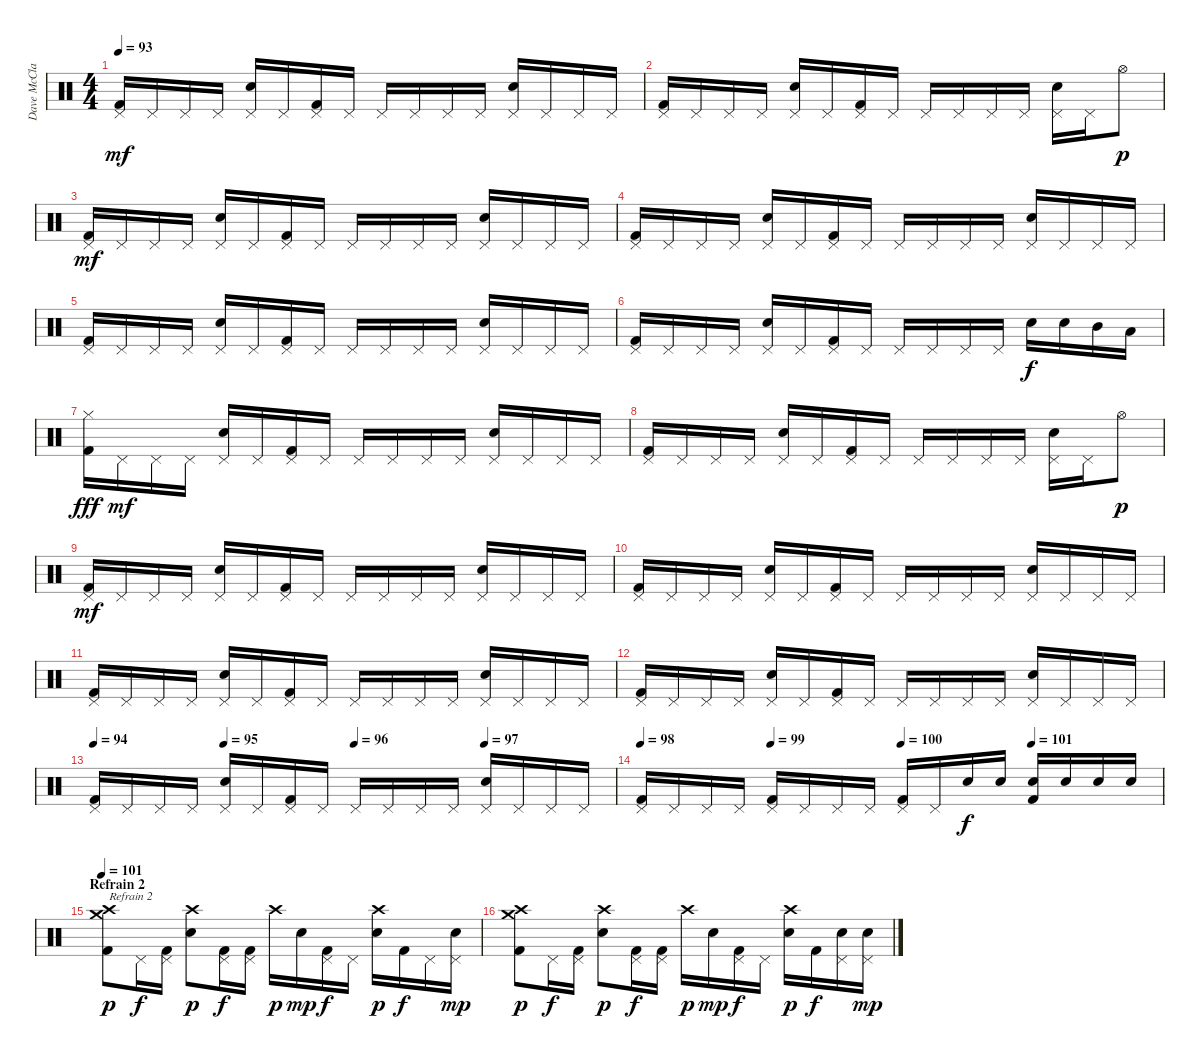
\track ("Dave McClain" "Dave McCla") {instrument percussion}
\staff {score}
\articulation defaults
\ts (4 4)
\tempo 93
\clef neutral
\ks c
("Pedal Hi-Hat (hit)" "Kick (hit) 2").16{dy mf} "Pedal Hi-Hat (hit)".16 "Pedal Hi-Hat (hit)".16 "Pedal Hi-Hat (hit)".16 ("Electric Snare (hit)" "Pedal Hi-Hat (hit)").16 "Pedal Hi-Hat (hit)".16 ("Pedal Hi-Hat (hit)" "Kick (hit) 2").16 "Pedal Hi-Hat (hit)".16 "Pedal Hi-Hat (hit)".16 "Pedal Hi-Hat (hit)".16 "Pedal Hi-Hat (hit)".16 "Pedal Hi-Hat (hit)".16 ("Electric Snare (hit)" "Pedal Hi-Hat (hit)").16 "Pedal Hi-Hat (hit)".16 "Pedal Hi-Hat (hit)".16 "Pedal Hi-Hat (hit)".16 |
("Pedal Hi-Hat (hit)" "Kick (hit) 2").16 "Pedal Hi-Hat (hit)".16 "Pedal Hi-Hat (hit)".16 "Pedal Hi-Hat (hit)".16 ("Electric Snare (hit)" "Pedal Hi-Hat (hit)").16 "Pedal Hi-Hat (hit)".16 ("Pedal Hi-Hat (hit)" "Kick (hit) 2").16 "Pedal Hi-Hat (hit)".16 "Pedal Hi-Hat (hit)".16 "Pedal Hi-Hat (hit)".16 "Pedal Hi-Hat (hit)".16 "Pedal Hi-Hat (hit)".16 ("Electric Snare (hit)" "Pedal Hi-Hat (hit)").16 "Pedal Hi-Hat (hit)".16 "Hi-Hat (open)".8{dy p} |
("Pedal Hi-Hat (hit)" "Kick (hit) 2").16{dy mf} "Pedal Hi-Hat (hit)".16 "Pedal Hi-Hat (hit)".16 "Pedal Hi-Hat (hit)".16 ("Electric Snare (hit)" "Pedal Hi-Hat (hit)").16 "Pedal Hi-Hat (hit)".16 ("Pedal Hi-Hat (hit)" "Kick (hit) 2").16 "Pedal Hi-Hat (hit)".16 "Pedal Hi-Hat (hit)".16 "Pedal Hi-Hat (hit)".16 "Pedal Hi-Hat (hit)".16 "Pedal Hi-Hat (hit)".16 ("Electric Snare (hit)" "Pedal Hi-Hat (hit)").16 "Pedal Hi-Hat (hit)".16 "Pedal Hi-Hat (hit)".16 "Pedal Hi-Hat (hit)".16 |
("Pedal Hi-Hat (hit)" "Kick (hit) 2").16 "Pedal Hi-Hat (hit)".16 "Pedal Hi-Hat (hit)".16 "Pedal Hi-Hat (hit)".16 ("Electric Snare (hit)" "Pedal Hi-Hat (hit)").16 "Pedal Hi-Hat (hit)".16 ("Pedal Hi-Hat (hit)" "Kick (hit) 2").16 "Pedal Hi-Hat (hit)".16 "Pedal Hi-Hat (hit)".16 "Pedal Hi-Hat (hit)".16 "Pedal Hi-Hat (hit)".16 "Pedal Hi-Hat (hit)".16 ("Electric Snare (hit)" "Pedal Hi-Hat (hit)").16 "Pedal Hi-Hat (hit)".16 "Pedal Hi-Hat (hit)".16 "Pedal Hi-Hat (hit)".16 |
("Pedal Hi-Hat (hit)" "Kick (hit) 2").16 "Pedal Hi-Hat (hit)".16 "Pedal Hi-Hat (hit)".16 "Pedal Hi-Hat (hit)".16 ("Electric Snare (hit)" "Pedal Hi-Hat (hit)").16 "Pedal Hi-Hat (hit)".16 ("Pedal Hi-Hat (hit)" "Kick (hit) 2").16 "Pedal Hi-Hat (hit)".16 "Pedal Hi-Hat (hit)".16 "Pedal Hi-Hat (hit)".16 "Pedal Hi-Hat (hit)".16 "Pedal Hi-Hat (hit)".16 ("Electric Snare (hit)" "Pedal Hi-Hat (hit)").16 "Pedal Hi-Hat (hit)".16 "Pedal Hi-Hat (hit)".16 "Pedal Hi-Hat (hit)".16 |
("Pedal Hi-Hat (hit)" "Kick (hit) 2").16 "Pedal Hi-Hat (hit)".16 "Pedal Hi-Hat (hit)".16 "Pedal Hi-Hat (hit)".16 ("Electric Snare (hit)" "Pedal Hi-Hat (hit)").16 "Pedal Hi-Hat (hit)".16 ("Pedal Hi-Hat (hit)" "Kick (hit) 2").16 "Pedal Hi-Hat (hit)".16 "Pedal Hi-Hat (hit)".16 "Pedal Hi-Hat (hit)".16 "Pedal Hi-Hat (hit)".16 "Pedal Hi-Hat (hit)".16 "Electric Snare (hit)".16{dy f} "Electric Snare (hit)".16 "Mid Tom (hit)".16 "Low Tom (hit)".16 |
("Hi-Hat (closed)" "Kick (hit) 2").16{dy fff} "Pedal Hi-Hat (hit)".16{dy mf} "Pedal Hi-Hat (hit)".16 "Pedal Hi-Hat (hit)".16 ("Electric Snare (hit)" "Pedal Hi-Hat (hit)").16 "Pedal Hi-Hat (hit)".16 ("Pedal Hi-Hat (hit)" "Kick (hit) 2").16 "Pedal Hi-Hat (hit)".16 "Pedal Hi-Hat (hit)".16 "Pedal Hi-Hat (hit)".16 "Pedal Hi-Hat (hit)".16 "Pedal Hi-Hat (hit)".16 ("Electric Snare (hit)" "Pedal Hi-Hat (hit)").16 "Pedal Hi-Hat (hit)".16 "Pedal Hi-Hat (hit)".16 "Pedal Hi-Hat (hit)".16 |
("Pedal Hi-Hat (hit)" "Kick (hit) 2").16 "Pedal Hi-Hat (hit)".16 "Pedal Hi-Hat (hit)".16 "Pedal Hi-Hat (hit)".16 ("Electric Snare (hit)" "Pedal Hi-Hat (hit)").16 "Pedal Hi-Hat (hit)".16 ("Pedal Hi-Hat (hit)" "Kick (hit) 2").16 "Pedal Hi-Hat (hit)".16 "Pedal Hi-Hat (hit)".16 "Pedal Hi-Hat (hit)".16 "Pedal Hi-Hat (hit)".16 "Pedal Hi-Hat (hit)".16 ("Electric Snare (hit)" "Pedal Hi-Hat (hit)").16 "Pedal Hi-Hat (hit)".16 "Hi-Hat (open)".8{dy p} |
("Pedal Hi-Hat (hit)" "Kick (hit) 2").16{dy mf} "Pedal Hi-Hat (hit)".16 "Pedal Hi-Hat (hit)".16 "Pedal Hi-Hat (hit)".16 ("Electric Snare (hit)" "Pedal Hi-Hat (hit)").16 "Pedal Hi-Hat (hit)".16 ("Pedal Hi-Hat (hit)" "Kick (hit) 2").16 "Pedal Hi-Hat (hit)".16 "Pedal Hi-Hat (hit)".16 "Pedal Hi-Hat (hit)".16 "Pedal Hi-Hat (hit)".16 "Pedal Hi-Hat (hit)".16 ("Electric Snare (hit)" "Pedal Hi-Hat (hit)").16 "Pedal Hi-Hat (hit)".16 "Pedal Hi-Hat (hit)".16 "Pedal Hi-Hat (hit)".16 |
("Pedal Hi-Hat (hit)" "Kick (hit) 2").16 "Pedal Hi-Hat (hit)".16 "Pedal Hi-Hat (hit)".16 "Pedal Hi-Hat (hit)".16 ("Electric Snare (hit)" "Pedal Hi-Hat (hit)").16 "Pedal Hi-Hat (hit)".16 ("Pedal Hi-Hat (hit)" "Kick (hit) 2").16 "Pedal Hi-Hat (hit)".16 "Pedal Hi-Hat (hit)".16 "Pedal Hi-Hat (hit)".16 "Pedal Hi-Hat (hit)".16 "Pedal Hi-Hat (hit)".16 ("Electric Snare (hit)" "Pedal Hi-Hat (hit)").16 "Pedal Hi-Hat (hit)".16 "Pedal Hi-Hat (hit)".16 "Pedal Hi-Hat (hit)".16 |
("Pedal Hi-Hat (hit)" "Kick (hit) 2").16 "Pedal Hi-Hat (hit)".16 "Pedal Hi-Hat (hit)".16 "Pedal Hi-Hat (hit)".16 ("Electric Snare (hit)" "Pedal Hi-Hat (hit)").16 "Pedal Hi-Hat (hit)".16 ("Pedal Hi-Hat (hit)" "Kick (hit) 2").16 "Pedal Hi-Hat (hit)".16 "Pedal Hi-Hat (hit)".16 "Pedal Hi-Hat (hit)".16 "Pedal Hi-Hat (hit)".16 "Pedal Hi-Hat (hit)".16 ("Electric Snare (hit)" "Pedal Hi-Hat (hit)").16 "Pedal Hi-Hat (hit)".16 "Pedal Hi-Hat (hit)".16 "Pedal Hi-Hat (hit)".16 |
("Pedal Hi-Hat (hit)" "Kick (hit) 2").16 "Pedal Hi-Hat (hit)".16 "Pedal Hi-Hat (hit)".16 "Pedal Hi-Hat (hit)".16 ("Electric Snare (hit)" "Pedal Hi-Hat (hit)").16 "Pedal Hi-Hat (hit)".16 ("Pedal Hi-Hat (hit)" "Kick (hit) 2").16 "Pedal Hi-Hat (hit)".16 "Pedal Hi-Hat (hit)".16 "Pedal Hi-Hat (hit)".16 "Pedal Hi-Hat (hit)".16 "Pedal Hi-Hat (hit)".16 ("Electric Snare (hit)" "Pedal Hi-Hat (hit)").16 "Pedal Hi-Hat (hit)".16 "Pedal Hi-Hat (hit)".16 "Pedal Hi-Hat (hit)".16 |
\tempo 94
\tempo (95 0.25)
\tempo (96 0.5)
\tempo (97 0.75)
("Pedal Hi-Hat (hit)" "Kick (hit) 2").16 "Pedal Hi-Hat (hit)".16 "Pedal Hi-Hat (hit)".16 "Pedal Hi-Hat (hit)".16 ("Electric Snare (hit)" "Pedal Hi-Hat (hit)").16 "Pedal Hi-Hat (hit)".16 ("Pedal Hi-Hat (hit)" "Kick (hit) 2").16 "Pedal Hi-Hat (hit)".16 "Pedal Hi-Hat (hit)".16 "Pedal Hi-Hat (hit)".16 "Pedal Hi-Hat (hit)".16 "Pedal Hi-Hat (hit)".16 ("Electric Snare (hit)" "Pedal Hi-Hat (hit)").16 "Pedal Hi-Hat (hit)".16 "Pedal Hi-Hat (hit)".16 "Pedal Hi-Hat (hit)".16 |
\tempo 98
\tempo (99 0.25)
\tempo (100 0.5)
\tempo (101 0.75)
("Pedal Hi-Hat (hit)" "Kick (hit) 2").16 "Pedal Hi-Hat (hit)".16 "Pedal Hi-Hat (hit)".16 "Pedal Hi-Hat (hit)".16 ("Pedal Hi-Hat (hit)" "Kick (hit) 2").16 "Pedal Hi-Hat (hit)".16 "Pedal Hi-Hat (hit)".16 "Pedal Hi-Hat (hit)".16 ("Pedal Hi-Hat (hit)" "Kick (hit) 2").16 "Pedal Hi-Hat (hit)".16 "Electric Snare (hit)".16{dy f} "Electric Snare (hit)".16 ("Electric Snare (hit)" "Kick (hit) 2").16 "Electric Snare (hit)".16 "Electric Snare (hit)".16 "Electric Snare (hit)".16 |
\section ("" "Refrain 2")
\tempo 101
("Crash medium (hit)" "Crash high (hit)" "Kick (hit) 2").8{txt "Refrain 2" dy p} "Pedal Hi-Hat (hit)".16{dy f} ("Pedal Hi-Hat (hit)" "Kick (hit) 2").16 ("Crash high (hit)" "Electric Snare (hit)").8{dy p} ("Pedal Hi-Hat (hit)" "Kick (hit) 2").16{dy f} ("Pedal Hi-Hat (hit)" "Kick (hit) 2").16 "Crash high (hit)".16{dy p} "Electric Snare (hit)".16{dy mp} ("Pedal Hi-Hat (hit)" "Kick (hit) 2").16{dy f} "Pedal Hi-Hat (hit)".16 ("Crash high (hit)" "Electric Snare (hit)").16{dy p} "Kick (hit) 2".16{dy f} "Pedal Hi-Hat (hit)".16 ("Electric Snare (hit)" "Pedal Hi-Hat (hit)").16{dy mp} |
("Crash medium (hit)" "Crash high (hit)" "Kick (hit) 2").8{dy p} "Pedal Hi-Hat (hit)".16{dy f} ("Pedal Hi-Hat (hit)" "Kick (hit) 2").16 ("Crash high (hit)" "Electric Snare (hit)").8{dy p} ("Pedal Hi-Hat (hit)" "Kick (hit) 2").16{dy f} ("Pedal Hi-Hat (hit)" "Kick (hit) 2").16 "Crash high (hit)".16{dy p} "Electric Snare (hit)".16{dy mp} ("Pedal Hi-Hat (hit)" "Kick (hit) 2").16{dy f} "Pedal Hi-Hat (hit)".16 ("Crash high (hit)" "Electric Snare (hit)").16{dy p} "Kick (hit) 2".16{dy f} ("Electric Snare (hit)" "Pedal Hi-Hat (hit)").16 ("Electric Snare (hit)" "Pedal Hi-Hat (hit)").16{dy mp}
